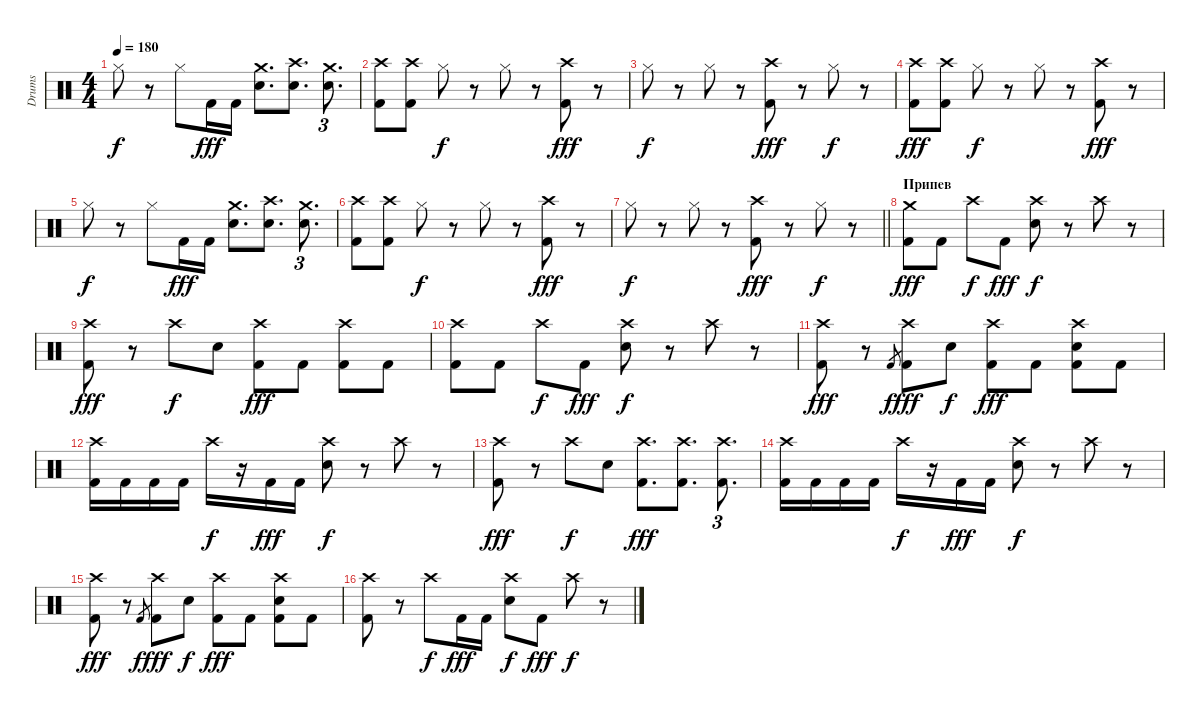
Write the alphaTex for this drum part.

\track ("Drums" "Drums") {instrument percussion}
\staff {score}
\articulation defaults
\ts (4 4)
\tempo 180
\clef neutral
\ks c "Hi-Hat (closed)".8{dy f}
r.8 "Hi-Hat (closed)".8 "Kick (hit) 2".16{dy fff} "Kick (hit) 2".16 ("Crash medium (hit)" "Electric Snare (hit)").8{d} ("Crash high (hit)" "Electric Snare (hit)").8{d} ("Crash medium (hit)" "Electric Snare (hit)").8{d tu (3 2)} |
("Crash high (hit)" "Kick (hit) 2").8 ("Crash high (hit)" "Kick (hit) 2").8 "Hi-Hat (closed)".8{dy f} r.8 "Hi-Hat (closed)".8 r.8 ("Crash high (hit)" "Kick (hit) 2").8{dy fff} r.8 |
"Hi-Hat (closed)".8{dy f} r.8 "Hi-Hat (closed)".8 r.8 ("Crash high (hit)" "Kick (hit) 2").8{dy fff} r.8 "Hi-Hat (closed)".8{dy f} r.8 |
("Crash high (hit)" "Kick (hit) 2").8{dy fff} ("Crash high (hit)" "Kick (hit) 2").8 "Hi-Hat (closed)".8{dy f} r.8 "Hi-Hat (closed)".8 r.8 ("Crash high (hit)" "Kick (hit) 2").8{dy fff} r.8 |
"Hi-Hat (closed)".8{dy f} r.8 "Hi-Hat (closed)".8 "Kick (hit) 2".16{dy fff} "Kick (hit) 2".16 ("Crash medium (hit)" "Electric Snare (hit)").8{d} ("Crash high (hit)" "Electric Snare (hit)").8{d} ("Crash medium (hit)" "Electric Snare (hit)").8{d tu (3 2)} |
("Crash high (hit)" "Kick (hit) 2").8 ("Crash high (hit)" "Kick (hit) 2").8 "Hi-Hat (closed)".8{dy f} r.8 "Hi-Hat (closed)".8 r.8 ("Crash high (hit)" "Kick (hit) 2").8{dy fff} r.8 |
\barLineRight lightlight "Hi-Hat (closed)".8{dy f}
r.8 "Hi-Hat (closed)".8 r.8 ("Crash high (hit)" "Kick (hit) 2").8{dy fff} r.8 "Hi-Hat (closed)".8{dy f} r.8 |
\section ("" "Припев")
("Crash medium (hit)" "Kick (hit) 2").8{dy fff} "Kick (hit) 2".8 "Crash high (hit)".8{dy f} "Kick (hit) 2".8{dy fff} ("Crash high (hit)" "Electric Snare (hit)").8{dy f} r.8 "Crash high (hit)".8 r.8 |
("Crash high (hit)" "Kick (hit) 2").8{dy fff} r.8 "Crash high (hit)".8{dy f} "Electric Snare (hit)".8 ("Crash high (hit)" "Kick (hit) 2").8{dy fff} "Kick (hit) 2".8 ("Crash high (hit)" "Kick (hit) 2").8 "Kick (hit) 2".8 |
("Crash high (hit)" "Kick (hit) 2").8 "Kick (hit) 2".8 "Crash high (hit)".8{dy f} "Kick (hit) 2".8{dy fff} ("Crash high (hit)" "Electric Snare (hit)").8{dy f} r.8 "Crash high (hit)".8 r.8 |
("Crash high (hit)" "Kick (hit) 2").8{dy fff} r.8 "Kick (hit) 2".8{gr dy f} ("Crash high (hit)" "Kick (hit) 2").8{dy fff} "Electric Snare (hit)".8{dy f} ("Crash high (hit)" "Kick (hit) 2").8{dy fff} "Kick (hit) 2".8 ("Crash high (hit)" "Electric Snare (hit)" "Kick (hit) 2").8 "Kick (hit) 2".8 |
("Crash high (hit)" "Kick (hit) 2").16 "Kick (hit) 2".16 "Kick (hit) 2".16 "Kick (hit) 2".16 "Crash high (hit)".16{dy f} r.16 "Kick (hit) 2".16{dy fff} "Kick (hit) 2".16 ("Crash high (hit)" "Electric Snare (hit)").8{dy f} r.8 "Crash high (hit)".8 r.8 |
("Crash high (hit)" "Kick (hit) 2").8{dy fff} r.8 "Crash high (hit)".8{dy f} "Electric Snare (hit)".8 ("Crash high (hit)" "Kick (hit) 2").8{d dy fff} ("Crash high (hit)" "Kick (hit) 2").8{d} ("Crash high (hit)" "Kick (hit) 2").8{d tu (3 2)} |
("Crash high (hit)" "Kick (hit) 2").16 "Kick (hit) 2".16 "Kick (hit) 2".16 "Kick (hit) 2".16 "Crash high (hit)".16{dy f} r.16 "Kick (hit) 2".16{dy fff} "Kick (hit) 2".16 ("Crash high (hit)" "Electric Snare (hit)").8{dy f} r.8 "Crash high (hit)".8 r.8 |
("Crash high (hit)" "Kick (hit) 2").8{dy fff} r.8 "Kick (hit) 2".8{gr dy f} ("Crash high (hit)" "Kick (hit) 2").8{dy fff} "Electric Snare (hit)".8{dy f} ("Crash high (hit)" "Kick (hit) 2").8{dy fff} "Kick (hit) 2".8 ("Crash high (hit)" "Electric Snare (hit)" "Kick (hit) 2").8 "Kick (hit) 2".8 |
("Crash high (hit)" "Kick (hit) 2").8 r.8 "Crash high (hit)".8{dy f} "Kick (hit) 2".16{dy fff} "Kick (hit) 2".16 ("Crash high (hit)" "Electric Snare (hit)").8{dy f} "Kick (hit) 2".8{dy fff} "Crash high (hit)".8{dy f} r.8
